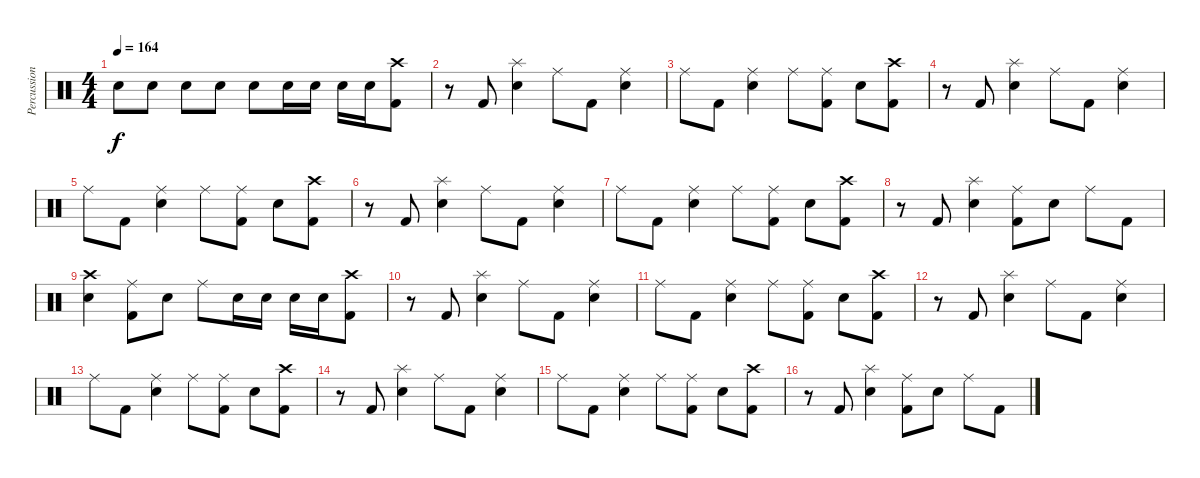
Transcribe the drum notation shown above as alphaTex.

\track ("Percussion" "Percussion") {instrument percussion}
\staff {score}
\articulation defaults
\ts (4 4)
\tempo 164
\clef neutral
\ks c "Snare (hit) 2".8{dy f} "Snare (hit) 2".8 "Snare (hit) 2".8 "Snare (hit) 2".8 "Snare (hit) 2".8 "Snare (hit) 2".16 "Snare (hit) 2".16 "Snare (hit) 2".16 "Snare (hit) 2".16
("Crash high (hit)" "Kick (hit) 2").8 |
r.8 "Kick (hit) 2".8 ("Splash (hit)" "Snare (hit) 2").4 "Ride (middle)".8 "Kick (hit) 2".8 ("Ride (middle)" "Snare (hit) 2").4 |
"Ride (middle)".8 "Kick (hit) 2".8 ("Ride (middle)" "Snare (hit) 2").4 "Ride (middle)".8 ("Ride (middle)" "Kick (hit) 2").8 "Snare (hit) 2".8 ("Crash high (hit)" "Kick (hit) 2").8 |
r.8 "Kick (hit) 2".8 ("Splash (hit)" "Snare (hit) 2").4 "Ride (middle)".8 "Kick (hit) 2".8 ("Ride (middle)" "Snare (hit) 2").4 |
"Ride (middle)".8 "Kick (hit) 2".8 ("Ride (middle)" "Snare (hit) 2").4 "Ride (middle)".8 ("Ride (middle)" "Kick (hit) 2").8 "Snare (hit) 2".8 ("Crash high (hit)" "Kick (hit) 2").8 |
r.8 "Kick (hit) 2".8 ("Splash (hit)" "Snare (hit) 2").4 "Ride (middle)".8 "Kick (hit) 2".8 ("Ride (middle)" "Snare (hit) 2").4 |
"Ride (middle)".8 "Kick (hit) 2".8 ("Ride (middle)" "Snare (hit) 2").4 "Ride (middle)".8 ("Ride (middle)" "Kick (hit) 2").8 "Snare (hit) 2".8 ("Crash high (hit)" "Kick (hit) 2").8 |
r.8 "Kick (hit) 2".8 ("Splash (hit)" "Snare (hit) 2").4 ("Ride (middle)" "Kick (hit) 2").8 "Snare (hit) 2".8 "Ride (middle)".8 "Kick (hit) 2".8 |
("Crash high (hit)" "Snare (hit) 2").4 ("Ride (middle)" "Kick (hit) 2").8 "Snare (hit) 2".8 "Ride (middle)".8 "Snare (hit) 2".16 "Snare (hit) 2".16 "Snare (hit) 2".16 "Snare (hit) 2".16 ("Crash high (hit)" "Kick (hit) 2").8 |
r.8 "Kick (hit) 2".8 ("Splash (hit)" "Snare (hit) 2").4 "Ride (middle)".8 "Kick (hit) 2".8 ("Ride (middle)" "Snare (hit) 2").4 |
"Ride (middle)".8 "Kick (hit) 2".8 ("Ride (middle)" "Snare (hit) 2").4 "Ride (middle)".8 ("Ride (middle)" "Kick (hit) 2").8 "Snare (hit) 2".8 ("Crash high (hit)" "Kick (hit) 2").8 |
r.8 "Kick (hit) 2".8 ("Splash (hit)" "Snare (hit) 2").4 "Ride (middle)".8 "Kick (hit) 2".8 ("Ride (middle)" "Snare (hit) 2").4 |
"Ride (middle)".8 "Kick (hit) 2".8 ("Ride (middle)" "Snare (hit) 2").4 "Ride (middle)".8 ("Ride (middle)" "Kick (hit) 2").8 "Snare (hit) 2".8 ("Crash high (hit)" "Kick (hit) 2").8 |
r.8 "Kick (hit) 2".8 ("Splash (hit)" "Snare (hit) 2").4 "Ride (middle)".8 "Kick (hit) 2".8 ("Ride (middle)" "Snare (hit) 2").4 |
"Ride (middle)".8 "Kick (hit) 2".8 ("Ride (middle)" "Snare (hit) 2").4 "Ride (middle)".8 ("Ride (middle)" "Kick (hit) 2").8 "Snare (hit) 2".8 ("Crash high (hit)" "Kick (hit) 2").8 |
r.8 "Kick (hit) 2".8 ("Splash (hit)" "Snare (hit) 2").4 ("Ride (middle)" "Kick (hit) 2").8 "Snare (hit) 2".8 "Ride (middle)".8 "Kick (hit) 2".8
